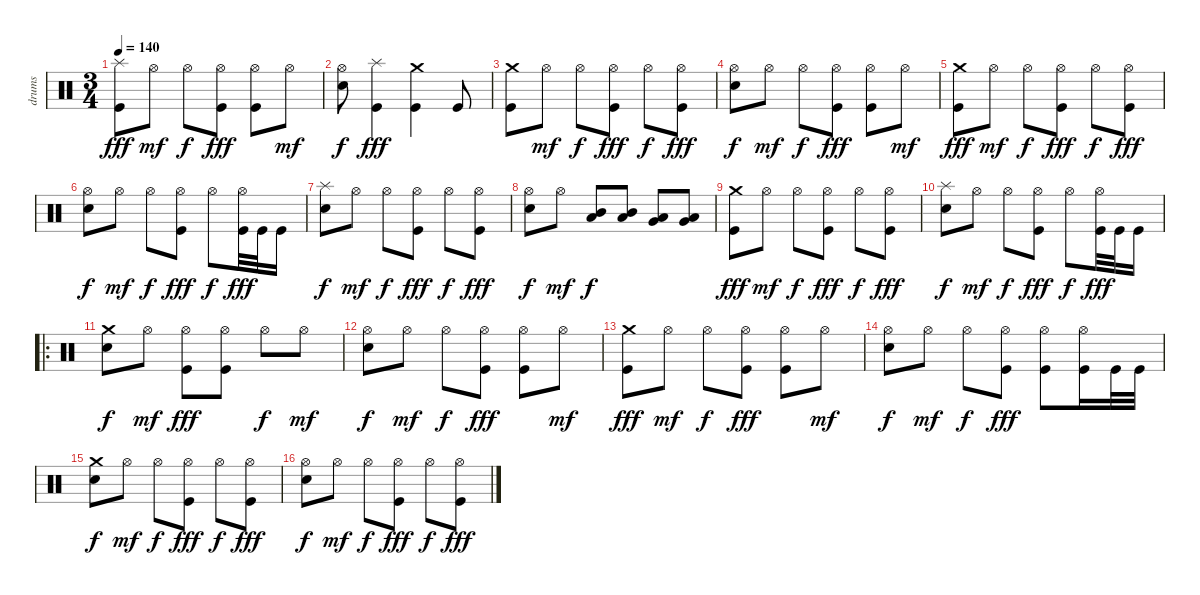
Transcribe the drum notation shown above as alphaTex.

\track ("drums" "drums") {instrument percussion}
\staff {score}
\articulation defaults
\ts (3 4)
\tempo 140
\clef neutral
\ks c
("Splash (hit)" "Kick (hit)").8{dy fff} "Hi-Hat (open)".8{dy mf} "Hi-Hat (open)".8{dy f} ("Hi-Hat (open)" "Kick (hit)").8{dy fff} ("Hi-Hat (open)" "Kick (hit)").8 "Hi-Hat (open)".8{dy mf} |
("Hi-Hat (open)" "Snare (hit) 2").8{dy f} ("Splash (hit)" "Kick (hit)").4{dy fff} ("Crash medium (hit)" "Kick (hit)").4 "Kick (hit)".8 |
("Crash medium (hit)" "Kick (hit)").8 "Hi-Hat (open)".8{dy mf} "Hi-Hat (open)".8{dy f} ("Hi-Hat (open)" "Kick (hit)").8{dy fff} "Hi-Hat (open)".8{dy f} ("Hi-Hat (open)" "Kick (hit)").8{dy fff} |
("Hi-Hat (open)" "Snare (hit) 2").8{dy f} "Hi-Hat (open)".8{dy mf} "Hi-Hat (open)".8{dy f} ("Hi-Hat (open)" "Kick (hit)").8{dy fff} ("Hi-Hat (open)" "Kick (hit)").8 "Hi-Hat (open)".8{dy mf} |
("Crash medium (hit)" "Kick (hit)").8{dy fff} "Hi-Hat (open)".8{dy mf} "Hi-Hat (open)".8{dy f} ("Hi-Hat (open)" "Kick (hit)").8{dy fff} "Hi-Hat (open)".8{dy f} ("Hi-Hat (open)" "Kick (hit)").8{dy fff} |
("Hi-Hat (open)" "Snare (hit) 2").8{dy f} "Hi-Hat (open)".8{dy mf} "Hi-Hat (open)".8{dy f} ("Hi-Hat (open)" "Kick (hit)").8{dy fff} "Hi-Hat (open)".8{dy f} ("Hi-Hat (open)" "Kick (hit)").32{dy fff} "Kick (hit)".32 "Kick (hit)".16 |
("Splash (hit)" "Snare (hit) 2").8{dy f} "Hi-Hat (open)".8{dy mf} "Hi-Hat (open)".8{dy f} ("Hi-Hat (open)" "Kick (hit)").8{dy fff} "Hi-Hat (open)".8{dy f} ("Hi-Hat (open)" "Kick (hit)").8{dy fff} |
("Hi-Hat (open)" "Snare (hit) 2").8{dy f} "Hi-Hat (open)".8{dy mf} ("Mid Tom (hit)" "Low Tom (hit)").8{dy f} ("Mid Tom (hit)" "Low Tom (hit)").8 ("Low Tom (hit)" "Very Low Tom (hit)").8 ("Low Tom (hit)" "Very Low Tom (hit)").8 |
("Crash medium (hit)" "Kick (hit)").8{dy fff} "Hi-Hat (open)".8{dy mf} "Hi-Hat (open)".8{dy f} ("Hi-Hat (open)" "Kick (hit)").8{dy fff} "Hi-Hat (open)".8{dy f} ("Hi-Hat (open)" "Kick (hit)").8{dy fff} |
("Splash (hit)" "Snare (hit) 2").8{dy f} "Hi-Hat (open)".8{dy mf} "Hi-Hat (open)".8{dy f} ("Hi-Hat (open)" "Kick (hit)").8{dy fff} "Hi-Hat (open)".8{dy f} ("Hi-Hat (open)" "Kick (hit)").32{dy fff} "Kick (hit)".32 "Kick (hit)".16 |
\ro
("Crash medium (hit)" "Snare (hit) 2").8{dy f} "Hi-Hat (open)".8{dy mf} ("Hi-Hat (open)" "Kick (hit)").8{dy fff} ("Hi-Hat (open)" "Kick (hit)").8 "Hi-Hat (open)".8{dy f} "Hi-Hat (open)".8{dy mf} |
("Hi-Hat (open)" "Snare (hit) 2").8{dy f} "Hi-Hat (open)".8{dy mf} "Hi-Hat (open)".8{dy f} ("Hi-Hat (open)" "Kick (hit)").8{dy fff} ("Hi-Hat (open)" "Kick (hit)").8 "Hi-Hat (open)".8{dy mf} |
("Crash medium (hit)" "Kick (hit)").8{dy fff} "Hi-Hat (open)".8{dy mf} "Hi-Hat (open)".8{dy f} ("Hi-Hat (open)" "Kick (hit)").8{dy fff} ("Hi-Hat (open)" "Kick (hit)").8 "Hi-Hat (open)".8{dy mf} |
("Hi-Hat (open)" "Snare (hit) 2").8{dy f} "Hi-Hat (open)".8{dy mf} "Hi-Hat (open)".8{dy f} ("Hi-Hat (open)" "Kick (hit)").8{dy fff} ("Hi-Hat (open)" "Kick (hit)").8 ("Hi-Hat (open)" "Kick (hit)").16 "Kick (hit)".32 "Kick (hit)".32 |
("Crash medium (hit)" "Snare (hit) 2").8{dy f} "Hi-Hat (open)".8{dy mf} "Hi-Hat (open)".8{dy f} ("Hi-Hat (open)" "Kick (hit)").8{dy fff} "Hi-Hat (open)".8{dy f} ("Hi-Hat (open)" "Kick (hit)").8{dy fff} |
("Hi-Hat (open)" "Snare (hit) 2").8{dy f} "Hi-Hat (open)".8{dy mf} "Hi-Hat (open)".8{dy f} ("Hi-Hat (open)" "Kick (hit)").8{dy fff} "Hi-Hat (open)".8{dy f} ("Hi-Hat (open)" "Kick (hit)").8{dy fff}
